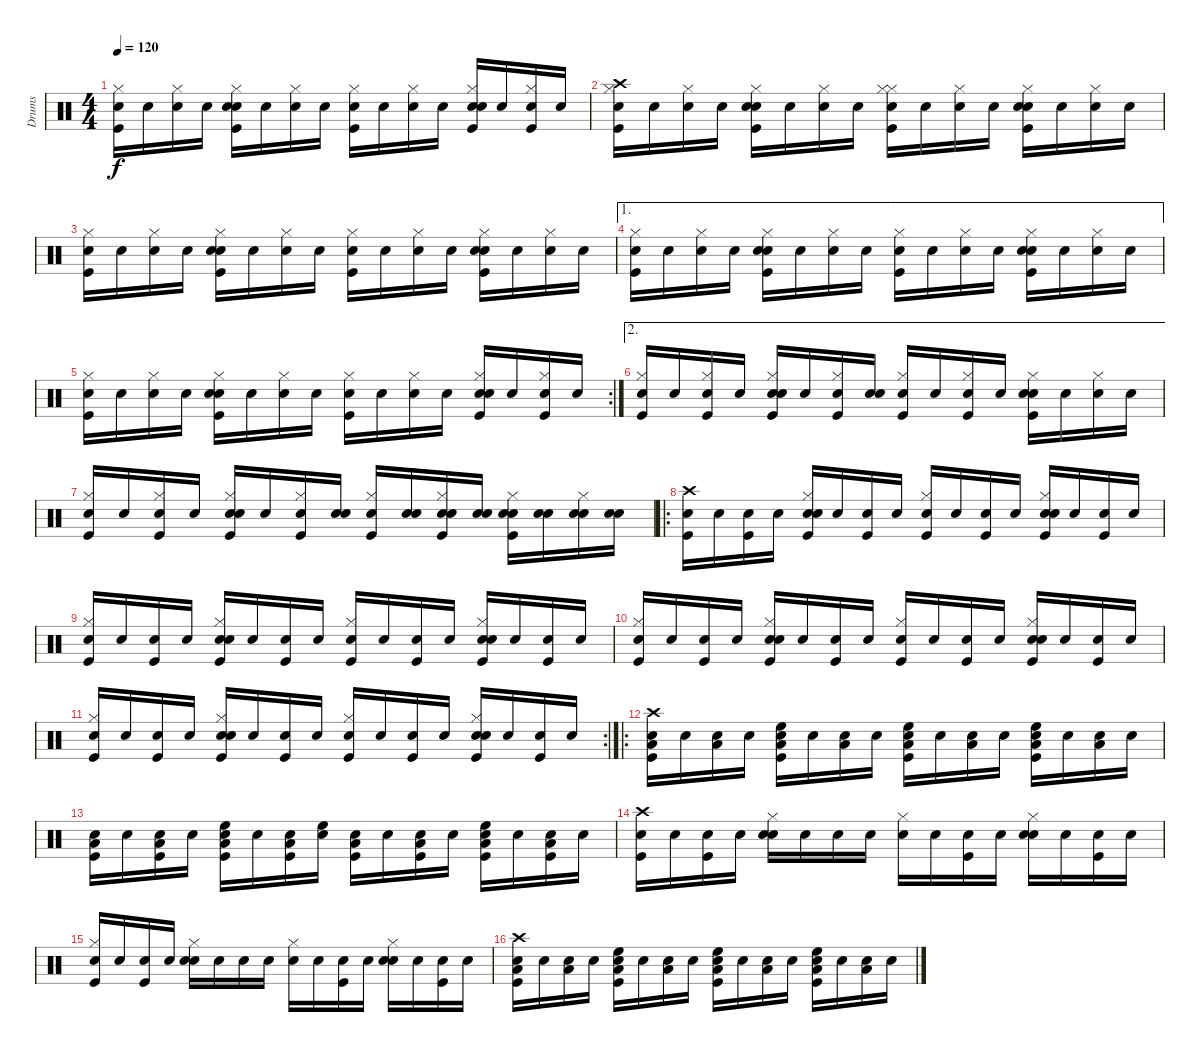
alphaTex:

\track ("Drums" "Drums") {instrument percussion}
\staff {score}
\articulation defaults
\ts (4 4)
\tempo 120
\clef neutral
\ks c
("Snare (hit)" "Hi-Hat (closed)" "Kick (hit)").16{dy f} "Snare (hit)".16 ("Snare (hit)" "Hi-Hat (closed)").16 "Snare (hit)".16 ("Snare (hit)" "Snare (hit) 2" "Hi-Hat (closed)" "Kick (hit)").16 "Snare (hit)".16 ("Snare (hit)" "Hi-Hat (closed)").16 "Snare (hit)".16 ("Snare (hit)" "Hi-Hat (closed)" "Kick (hit)").16 "Snare (hit)".16 ("Snare (hit)" "Hi-Hat (closed)").16 "Snare (hit)".16 ("Snare (hit)" "Snare (hit) 2" "Hi-Hat (closed)" "Kick (hit)").16 "Snare (hit)".16 ("Snare (hit)" "Hi-Hat (closed)" "Kick (hit)").16 "Snare (hit)".16 |
("Snare (hit)" "Hi-Hat (closed)" "Crash high (hit)" "Kick (hit)").16 "Snare (hit)".16 ("Snare (hit)" "Hi-Hat (closed)").16 "Snare (hit)".16 ("Snare (hit)" "Snare (hit) 2" "Hi-Hat (closed)" "Kick (hit)").16 "Snare (hit)".16 ("Snare (hit)" "Hi-Hat (closed)").16 "Snare (hit)".16 ("Snare (hit)" "Hi-Hat (closed)" "Hi-Hat (closed)" "Kick (hit)").16 "Snare (hit)".16 ("Snare (hit)" "Hi-Hat (closed)").16 "Snare (hit)".16 ("Snare (hit)" "Snare (hit) 2" "Hi-Hat (closed)" "Kick (hit)").16 "Snare (hit)".16 ("Snare (hit)" "Hi-Hat (closed)").16 "Snare (hit)".16 |
("Snare (hit)" "Hi-Hat (closed)" "Kick (hit)").16 "Snare (hit)".16 ("Snare (hit)" "Hi-Hat (closed)").16 "Snare (hit)".16 ("Snare (hit)" "Snare (hit) 2" "Hi-Hat (closed)" "Kick (hit)").16 "Snare (hit)".16 ("Snare (hit)" "Hi-Hat (closed)").16 "Snare (hit)".16 ("Snare (hit)" "Hi-Hat (closed)" "Kick (hit)").16 "Snare (hit)".16 ("Snare (hit)" "Hi-Hat (closed)").16 "Snare (hit)".16 ("Snare (hit)" "Snare (hit) 2" "Hi-Hat (closed)" "Kick (hit)").16 "Snare (hit)".16 ("Snare (hit)" "Hi-Hat (closed)").16 "Snare (hit)".16 |
\ae 1
("Snare (hit)" "Hi-Hat (closed)" "Kick (hit)").16 "Snare (hit)".16 ("Snare (hit)" "Hi-Hat (closed)").16 "Snare (hit)".16 ("Snare (hit)" "Snare (hit) 2" "Hi-Hat (closed)" "Kick (hit)").16 "Snare (hit)".16 ("Snare (hit)" "Hi-Hat (closed)").16 "Snare (hit)".16 ("Snare (hit)" "Hi-Hat (closed)" "Kick (hit)").16 "Snare (hit)".16 ("Snare (hit)" "Hi-Hat (closed)").16 "Snare (hit)".16 ("Snare (hit)" "Snare (hit) 2" "Hi-Hat (closed)" "Kick (hit)").16 "Snare (hit)".16 ("Snare (hit)" "Hi-Hat (closed)").16 "Snare (hit)".16 |
\rc 2
("Snare (hit)" "Hi-Hat (closed)" "Kick (hit)").16 "Snare (hit)".16 ("Snare (hit)" "Hi-Hat (closed)").16 "Snare (hit)".16 ("Snare (hit)" "Snare (hit) 2" "Hi-Hat (closed)" "Kick (hit)").16 "Snare (hit)".16 ("Snare (hit)" "Hi-Hat (closed)").16 "Snare (hit)".16 ("Snare (hit)" "Hi-Hat (closed)" "Kick (hit)").16 "Snare (hit)".16 ("Snare (hit)" "Hi-Hat (closed)").16 "Snare (hit)".16 ("Snare (hit)" "Snare (hit) 2" "Hi-Hat (closed)" "Kick (hit)").16 "Snare (hit)".16 ("Snare (hit)" "Hi-Hat (closed)" "Kick (hit)").16 "Snare (hit)".16 |
\ae 2
("Snare (hit)" "Hi-Hat (closed)" "Kick (hit)").16 "Snare (hit)".16 ("Snare (hit)" "Hi-Hat (closed)" "Kick (hit)").16 "Snare (hit)".16 ("Snare (hit)" "Snare (hit) 2" "Hi-Hat (closed)" "Kick (hit)").16 "Snare (hit)".16 ("Snare (hit)" "Hi-Hat (closed)" "Kick (hit)").16 ("Snare (hit)" "Snare (hit) 2").16 ("Snare (hit)" "Hi-Hat (closed)" "Kick (hit)").16 "Snare (hit)".16 ("Snare (hit)" "Hi-Hat (closed)" "Kick (hit)").16 "Snare (hit)".16 ("Snare (hit)" "Snare (hit) 2" "Hi-Hat (closed)" "Kick (hit)").16 "Snare (hit)".16 ("Snare (hit)" "Hi-Hat (closed)").16 "Snare (hit)".16 |
("Snare (hit)" "Hi-Hat (closed)" "Kick (hit)").16 "Snare (hit)".16 ("Snare (hit)" "Hi-Hat (closed)" "Kick (hit)").16 "Snare (hit)".16 ("Snare (hit)" "Snare (hit) 2" "Hi-Hat (closed)" "Kick (hit)").16 "Snare (hit)".16 ("Snare (hit)" "Hi-Hat (closed)" "Kick (hit)").16 ("Snare (hit)" "Snare (hit) 2").16 ("Snare (hit)" "Hi-Hat (closed)" "Kick (hit)").16 ("Snare (hit)" "Snare (hit) 2").16 ("Snare (hit)" "Hi-Hat (closed)" "Snare (hit) 2" "Kick (hit)").16 ("Snare (hit)" "Snare (hit) 2").16 ("Snare (hit)" "Snare (hit) 2" "Hi-Hat (closed)" "Kick (hit)").16 ("Snare (hit)" "Snare (hit) 2").16 ("Snare (hit)" "Hi-Hat (closed)" "Snare (hit) 2").16 ("Snare (hit)" "Snare (hit) 2").16 |
\ro
("Snare (hit)" "Crash high (hit)" "Kick (hit)").16 "Snare (hit)".16 ("Snare (hit)" "Kick (hit)").16 "Snare (hit)".16 ("Snare (hit)" "Snare (hit) 2" "Hi-Hat (closed)" "Kick (hit)").16 "Snare (hit)".16 ("Snare (hit)" "Kick (hit)").16 "Snare (hit)".16 ("Snare (hit)" "Hi-Hat (closed)" "Kick (hit)").16 "Snare (hit)".16 ("Snare (hit)" "Kick (hit)").16 "Snare (hit)".16 ("Snare (hit)" "Snare (hit) 2" "Hi-Hat (closed)" "Kick (hit)").16 "Snare (hit)".16 ("Snare (hit)" "Kick (hit)").16 "Snare (hit)".16 |
("Snare (hit)" "Hi-Hat (closed)" "Kick (hit)").16 "Snare (hit)".16 ("Snare (hit)" "Kick (hit)").16 "Snare (hit)".16 ("Snare (hit)" "Snare (hit) 2" "Hi-Hat (closed)" "Kick (hit)").16 "Snare (hit)".16 ("Snare (hit)" "Kick (hit)").16 "Snare (hit)".16 ("Snare (hit)" "Hi-Hat (closed)" "Kick (hit)").16 "Snare (hit)".16 ("Snare (hit)" "Kick (hit)").16 "Snare (hit)".16 ("Snare (hit)" "Snare (hit) 2" "Hi-Hat (closed)" "Kick (hit)").16 "Snare (hit)".16 ("Snare (hit)" "Kick (hit)").16 "Snare (hit)".16 |
("Snare (hit)" "Hi-Hat (closed)" "Kick (hit)").16 "Snare (hit)".16 ("Snare (hit)" "Kick (hit)").16 "Snare (hit)".16 ("Snare (hit)" "Snare (hit) 2" "Hi-Hat (closed)" "Kick (hit)").16 "Snare (hit)".16 ("Snare (hit)" "Kick (hit)").16 "Snare (hit)".16 ("Snare (hit)" "Hi-Hat (closed)" "Kick (hit)").16 "Snare (hit)".16 ("Snare (hit)" "Kick (hit)").16 "Snare (hit)".16 ("Snare (hit)" "Snare (hit) 2" "Hi-Hat (closed)" "Kick (hit)").16 "Snare (hit)".16 ("Snare (hit)" "Kick (hit)").16 "Snare (hit)".16 |
\rc 2
("Snare (hit)" "Hi-Hat (closed)" "Kick (hit)").16 "Snare (hit)".16 ("Snare (hit)" "Kick (hit)").16 "Snare (hit)".16 ("Snare (hit)" "Snare (hit) 2" "Hi-Hat (closed)" "Kick (hit)").16 "Snare (hit)".16 ("Snare (hit)" "Kick (hit)").16 "Snare (hit)".16 ("Snare (hit)" "Hi-Hat (closed)" "Kick (hit)").16 "Snare (hit)".16 ("Snare (hit)" "Kick (hit)").16 "Snare (hit)".16 ("Snare (hit)" "Snare (hit) 2" "Hi-Hat (closed)" "Kick (hit)").16 "Snare (hit)".16 ("Snare (hit)" "Kick (hit)").16 "Snare (hit)".16 |
\ro
("Snare (hit)" "Crash high (hit)" "Low Floor Tom (hit)" "Kick (hit)").16 "Snare (hit)".16 ("Snare (hit)" "Low Floor Tom (hit)").16 "Snare (hit)".16 ("Snare (hit)" "High Floor Tom (hit)" "Low Floor Tom (hit)" "Kick (hit)").16 "Snare (hit)".16 ("Snare (hit)" "Low Floor Tom (hit)").16 "Snare (hit)".16 ("Snare (hit)" "High Floor Tom (hit)" "Low Floor Tom (hit)" "Kick (hit)").16 "Snare (hit)".16 ("Snare (hit)" "Low Floor Tom (hit)").16 "Snare (hit)".16 ("Snare (hit)" "High Floor Tom (hit)" "Low Floor Tom (hit)" "Kick (hit)").16 "Snare (hit)".16 ("Snare (hit)" "Low Floor Tom (hit)").16 "Snare (hit)".16 |
("Snare (hit)" "Low Floor Tom (hit)" "Kick (hit)").16 "Snare (hit)".16 ("Snare (hit)" "Low Floor Tom (hit)" "Kick (hit)").16 "Snare (hit)".16 ("Snare (hit)" "High Floor Tom (hit)" "Low Floor Tom (hit)" "Kick (hit)").16 "Snare (hit)".16 ("Snare (hit)" "Low Floor Tom (hit)" "Kick (hit)").16 ("Snare (hit)" "High Floor Tom (hit)").16 ("Snare (hit)" "Low Floor Tom (hit)" "Kick (hit)").16 "Snare (hit)".16 ("Snare (hit)" "Low Floor Tom (hit)" "Kick (hit)").16 "Snare (hit)".16 ("Snare (hit)" "High Floor Tom (hit)" "Low Floor Tom (hit)" "Kick (hit)").16 "Snare (hit)".16 ("Snare (hit)" "Low Floor Tom (hit)" "Kick (hit)").16 "Snare (hit)".16 |
("Snare (hit)" "Crash high (hit)" "Kick (hit)").16 "Snare (hit)".16 ("Snare (hit)" "Kick (hit)").16 "Snare (hit)".16 ("Snare (hit)" "Snare (hit) 2" "Hi-Hat (closed)").16 "Snare (hit)".16 "Snare (hit)".16 "Snare (hit)".16 ("Snare (hit)" "Hi-Hat (closed)").16 "Snare (hit)".16 ("Snare (hit)" "Kick (hit)").16 "Snare (hit)".16 ("Snare (hit)" "Snare (hit) 2" "Hi-Hat (closed)").16 "Snare (hit)".16 ("Snare (hit)" "Kick (hit)").16 "Snare (hit)".16 |
("Snare (hit)" "Hi-Hat (closed)" "Kick (hit)").16 "Snare (hit)".16 ("Snare (hit)" "Kick (hit)").16 "Snare (hit)".16 ("Snare (hit)" "Snare (hit) 2" "Hi-Hat (closed)").16 "Snare (hit)".16 "Snare (hit)".16 "Snare (hit)".16 ("Snare (hit)" "Hi-Hat (closed)").16 "Snare (hit)".16 ("Snare (hit)" "Kick (hit)").16 "Snare (hit)".16 ("Snare (hit)" "Snare (hit) 2" "Hi-Hat (closed)").16 "Snare (hit)".16 ("Snare (hit)" "Kick (hit)").16 "Snare (hit)".16 |
("Snare (hit)" "Crash high (hit)" "Low Floor Tom (hit)" "Kick (hit)").16 "Snare (hit)".16 ("Snare (hit)" "Low Floor Tom (hit)").16 "Snare (hit)".16 ("Snare (hit)" "High Floor Tom (hit)" "Low Floor Tom (hit)" "Kick (hit)").16 "Snare (hit)".16 ("Snare (hit)" "Low Floor Tom (hit)").16 "Snare (hit)".16 ("Snare (hit)" "High Floor Tom (hit)" "Low Floor Tom (hit)" "Kick (hit)").16 "Snare (hit)".16 ("Snare (hit)" "Low Floor Tom (hit)").16 "Snare (hit)".16 ("Snare (hit)" "High Floor Tom (hit)" "Low Floor Tom (hit)" "Kick (hit)").16 "Snare (hit)".16 ("Snare (hit)" "Low Floor Tom (hit)").16 "Snare (hit)".16
